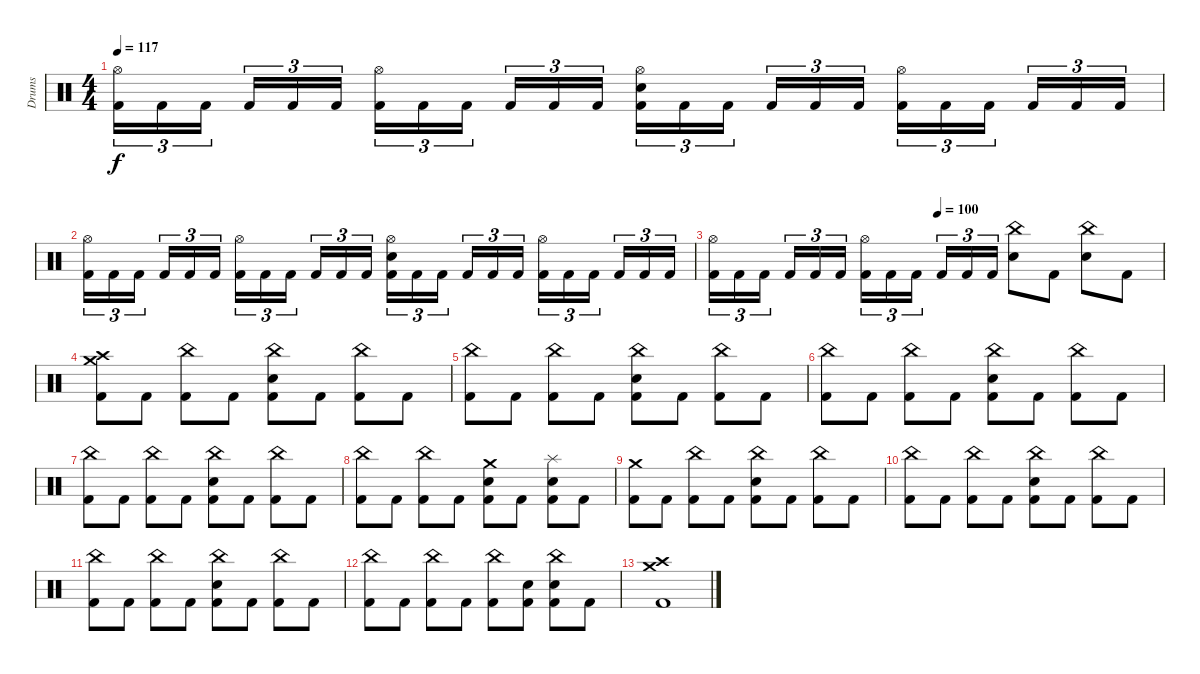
\track ("Drums" "Drums") {instrument percussion}
\staff {score}
\articulation defaults
\ts (4 4)
\tempo 117
\clef neutral
\ks c
("Hi-Hat (open)" "Kick (hit) 2").16{tu (3 2) dy f} "Kick (hit) 2".16{tu (3 2)} "Kick (hit) 2".16{tu (3 2) beam splitsecondary} "Kick (hit) 2".16{tu (3 2)} "Kick (hit) 2".16{tu (3 2)} "Kick (hit) 2".16{tu (3 2)} ("Hi-Hat (open)" "Kick (hit) 2").16{tu (3 2)} "Kick (hit) 2".16{tu (3 2)} "Kick (hit) 2".16{tu (3 2) beam splitsecondary} "Kick (hit) 2".16{tu (3 2)} "Kick (hit) 2".16{tu (3 2)} "Kick (hit) 2".16{tu (3 2)} ("Hi-Hat (open)" "Electric Snare (hit)" "Kick (hit) 2").16{tu (3 2)} "Kick (hit) 2".16{tu (3 2)} "Kick (hit) 2".16{tu (3 2) beam splitsecondary} "Kick (hit) 2".16{tu (3 2)} "Kick (hit) 2".16{tu (3 2)} "Kick (hit) 2".16{tu (3 2)} ("Hi-Hat (open)" "Kick (hit) 2").16{tu (3 2)} "Kick (hit) 2".16{tu (3 2)} "Kick (hit) 2".16{tu (3 2) beam splitsecondary} "Kick (hit) 2".16{tu (3 2)} "Kick (hit) 2".16{tu (3 2)} "Kick (hit) 2".16{tu (3 2)} |
("Hi-Hat (open)" "Kick (hit) 2").16{tu (3 2)} "Kick (hit) 2".16{tu (3 2)} "Kick (hit) 2".16{tu (3 2) beam splitsecondary} "Kick (hit) 2".16{tu (3 2)} "Kick (hit) 2".16{tu (3 2)} "Kick (hit) 2".16{tu (3 2)} ("Hi-Hat (open)" "Kick (hit) 2").16{tu (3 2)} "Kick (hit) 2".16{tu (3 2)} "Kick (hit) 2".16{tu (3 2) beam splitsecondary} "Kick (hit) 2".16{tu (3 2)} "Kick (hit) 2".16{tu (3 2)} "Kick (hit) 2".16{tu (3 2)} ("Hi-Hat (open)" "Electric Snare (hit)" "Kick (hit) 2").16{tu (3 2)} "Kick (hit) 2".16{tu (3 2)} "Kick (hit) 2".16{tu (3 2) beam splitsecondary} "Kick (hit) 2".16{tu (3 2)} "Kick (hit) 2".16{tu (3 2)} "Kick (hit) 2".16{tu (3 2)} ("Hi-Hat (open)" "Kick (hit) 2").16{tu (3 2)} "Kick (hit) 2".16{tu (3 2)} "Kick (hit) 2".16{tu (3 2) beam splitsecondary} "Kick (hit) 2".16{tu (3 2)} "Kick (hit) 2".16{tu (3 2)} "Kick (hit) 2".16{tu (3 2)} |
\tempo (100 0.5)
("Hi-Hat (open)" "Kick (hit) 2").16{tu (3 2)} "Kick (hit) 2".16{tu (3 2)} "Kick (hit) 2".16{tu (3 2) beam splitsecondary} "Kick (hit) 2".16{tu (3 2)} "Kick (hit) 2".16{tu (3 2)} "Kick (hit) 2".16{tu (3 2)} ("Hi-Hat (open)" "Kick (hit) 2").16{tu (3 2)} "Kick (hit) 2".16{tu (3 2)} "Kick (hit) 2".16{tu (3 2) beam splitsecondary} "Kick (hit) 2".16{tu (3 2)} "Kick (hit) 2".16{tu (3 2)} "Kick (hit) 2".16{tu (3 2)} ("China (hit)" "Electric Snare (hit)").8 "Kick (hit) 2".8 ("China (hit)" "Electric Snare (hit)").8 "Kick (hit) 2".8 |
("Crash medium (hit)" "Crash high (hit)" "Kick (hit) 2").8 "Kick (hit) 2".8 ("China (hit)" "Kick (hit) 2").8 "Kick (hit) 2".8 ("China (hit)" "Electric Snare (hit)" "Kick (hit) 2").8 "Kick (hit) 2".8 ("China (hit)" "Kick (hit) 2").8 "Kick (hit) 2".8 |
("China (hit)" "Kick (hit) 2").8 "Kick (hit) 2".8 ("China (hit)" "Kick (hit) 2").8 "Kick (hit) 2".8 ("China (hit)" "Electric Snare (hit)" "Kick (hit) 2").8 "Kick (hit) 2".8 ("China (hit)" "Kick (hit) 2").8 "Kick (hit) 2".8 |
("China (hit)" "Kick (hit) 2").8 "Kick (hit) 2".8 ("China (hit)" "Kick (hit) 2").8 "Kick (hit) 2".8 ("China (hit)" "Electric Snare (hit)" "Kick (hit) 2").8 "Kick (hit) 2".8 ("China (hit)" "Kick (hit) 2").8 "Kick (hit) 2".8 |
("China (hit)" "Kick (hit) 2").8 "Kick (hit) 2".8 ("China (hit)" "Kick (hit) 2").8 "Kick (hit) 2".8 ("China (hit)" "Electric Snare (hit)" "Kick (hit) 2").8 "Kick (hit) 2".8 ("China (hit)" "Kick (hit) 2").8 "Kick (hit) 2".8 |
("China (hit)" "Kick (hit) 2").8 "Kick (hit) 2".8 ("China (hit)" "Kick (hit) 2").8 "Kick (hit) 2".8 ("Crash medium (hit)" "Electric Snare (hit)" "Kick (hit) 2").8 "Kick (hit) 2".8 ("Splash (hit)" "Electric Snare (hit)" "Kick (hit) 2").8 "Kick (hit) 2".8 |
("Crash medium (hit)" "Kick (hit) 2").8 "Kick (hit) 2".8 ("China (hit)" "Kick (hit) 2").8 "Kick (hit) 2".8 ("China (hit)" "Electric Snare (hit)" "Kick (hit) 2").8 "Kick (hit) 2".8 ("China (hit)" "Kick (hit) 2").8 "Kick (hit) 2".8 |
("China (hit)" "Kick (hit) 2").8 "Kick (hit) 2".8 ("China (hit)" "Kick (hit) 2").8 "Kick (hit) 2".8 ("China (hit)" "Electric Snare (hit)" "Kick (hit) 2").8 "Kick (hit) 2".8 ("China (hit)" "Kick (hit) 2").8 "Kick (hit) 2".8 |
("China (hit)" "Kick (hit) 2").8 "Kick (hit) 2".8 ("China (hit)" "Kick (hit) 2").8 "Kick (hit) 2".8 ("China (hit)" "Electric Snare (hit)" "Kick (hit) 2").8 "Kick (hit) 2".8 ("China (hit)" "Kick (hit) 2").8 "Kick (hit) 2".8 |
("China (hit)" "Kick (hit) 2").8 "Kick (hit) 2".8 ("China (hit)" "Kick (hit) 2").8 "Kick (hit) 2".8 ("China (hit)" "Kick (hit) 2").8 ("Electric Snare (hit)" "Kick (hit) 2").8 ("China (hit)" "Electric Snare (hit)" "Kick (hit) 2").8 "Kick (hit) 2".8 |
("Crash high (hit)" "Crash medium (hit)" "Kick (hit) 2").1
